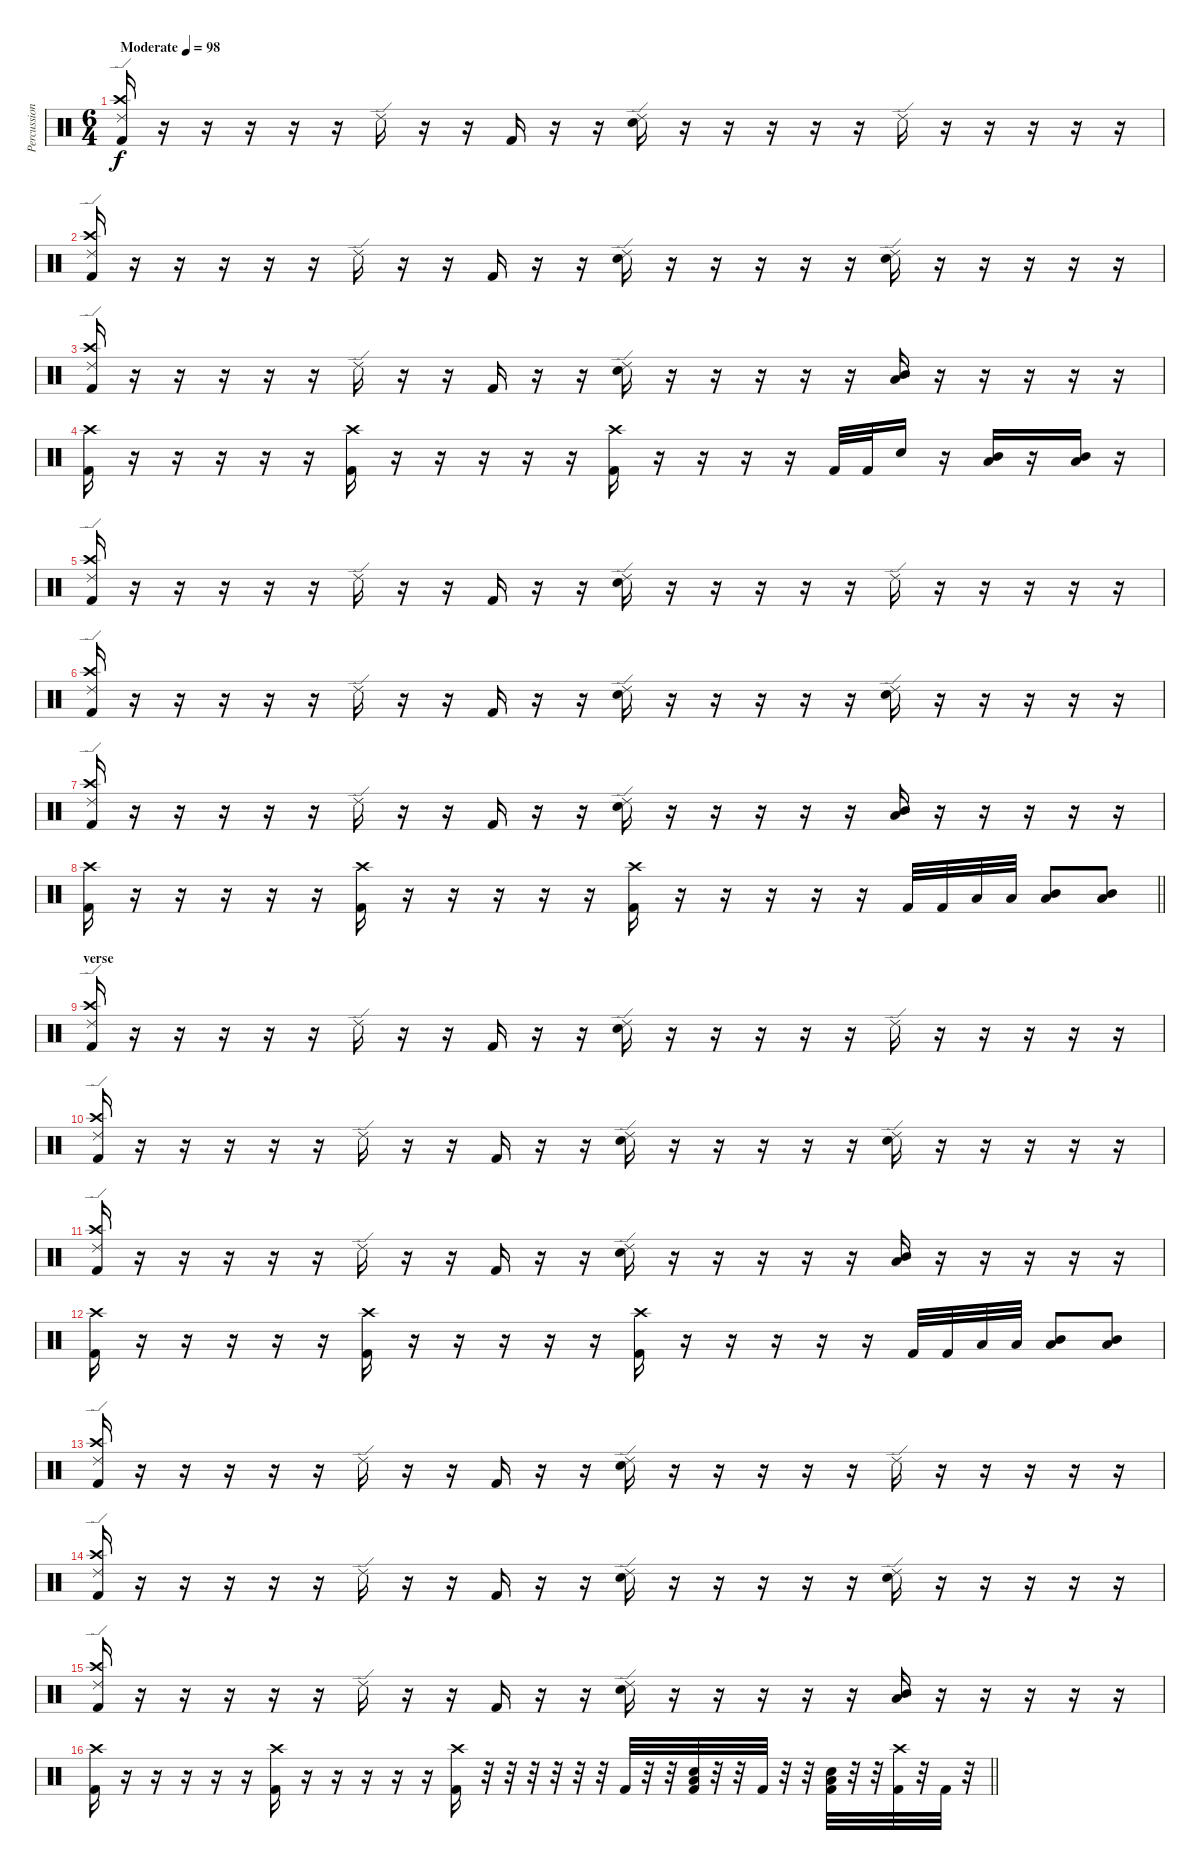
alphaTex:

\track ("Percussion" "Percussion") {instrument percussion}
\staff {score}
\articulation defaults
\ts (6 4)
\tempo (98 "Moderate")
\clef neutral
\ks c
("Ride (edge) 2" "Crash high (hit)" "Kick (hit) 2").16{dy f} r.16 r.16 r.16 r.16 r.16 "Ride (edge) 2".16 r.16 r.16 "Kick (hit) 2".16 r.16 r.16 ("Ride (edge) 2" "Electric Snare (hit)").16 r.16 r.16 r.16 r.16 r.16 "Ride (edge) 2".16 r.16 r.16 r.16 r.16 r.16 |
("Ride (edge) 2" "Crash high (hit)" "Kick (hit) 2").16 r.16 r.16 r.16 r.16 r.16 "Ride (edge) 2".16 r.16 r.16 "Kick (hit) 2".16 r.16 r.16 ("Ride (edge) 2" "Electric Snare (hit)").16 r.16 r.16 r.16 r.16 r.16 ("Ride (edge) 2" "Electric Snare (hit)").16 r.16 r.16 r.16 r.16 r.16 |
("Ride (edge) 2" "Crash high (hit)" "Kick (hit) 2").16 r.16 r.16 r.16 r.16 r.16 "Ride (edge) 2".16 r.16 r.16 "Kick (hit) 2".16 r.16 r.16 ("Ride (edge) 2" "Electric Snare (hit)").16 r.16 r.16 r.16 r.16 r.16 ("Mid Tom (hit)" "Low Tom (hit)").16 r.16 r.16 r.16 r.16 r.16 |
("Crash high (hit)" "Kick (hit) 2").16 r.16 r.16 r.16 r.16 r.16 ("Crash high (hit)" "Kick (hit) 2").16 r.16 r.16 r.16 r.16 r.16 ("Crash high (hit)" "Kick (hit) 2").16 r.16 r.16 r.16 r.16 "Kick (hit) 2".32 "Kick (hit) 2".32 "Electric Snare (hit)".16 r.16 ("Mid Tom (hit)" "Low Floor Tom (hit)").16 r.16 ("Mid Tom (hit)" "Low Floor Tom (hit)").16 r.16 |
("Ride (edge) 2" "Crash high (hit)" "Kick (hit) 2").16 r.16 r.16 r.16 r.16 r.16 "Ride (edge) 2".16 r.16 r.16 "Kick (hit) 2".16 r.16 r.16 ("Ride (edge) 2" "Electric Snare (hit)").16 r.16 r.16 r.16 r.16 r.16 "Ride (edge) 2".16 r.16 r.16 r.16 r.16 r.16 |
("Ride (edge) 2" "Crash high (hit)" "Kick (hit) 2").16 r.16 r.16 r.16 r.16 r.16 "Ride (edge) 2".16 r.16 r.16 "Kick (hit) 2".16 r.16 r.16 ("Ride (edge) 2" "Electric Snare (hit)").16 r.16 r.16 r.16 r.16 r.16 ("Ride (edge) 2" "Electric Snare (hit)").16 r.16 r.16 r.16 r.16 r.16 |
("Ride (edge) 2" "Crash high (hit)" "Kick (hit) 2").16 r.16 r.16 r.16 r.16 r.16 "Ride (edge) 2".16 r.16 r.16 "Kick (hit) 2".16 r.16 r.16 ("Ride (edge) 2" "Electric Snare (hit)").16 r.16 r.16 r.16 r.16 r.16 ("Mid Tom (hit)" "Low Tom (hit)").16 r.16 r.16 r.16 r.16 r.16 |
\barLineRight lightlight
("Crash high (hit)" "Kick (hit) 2").16 r.16 r.16 r.16 r.16 r.16 ("Crash high (hit)" "Kick (hit) 2").16 r.16 r.16 r.16 r.16 r.16 ("Crash high (hit)" "Kick (hit) 2").16 r.16 r.16 r.16 r.16 r.16 "Kick (hit) 2".32 "Kick (hit) 2".32 "Low Tom (hit)".32 "Low Tom (hit)".32 ("Mid Tom (hit)" "Low Tom (hit)").8 ("Mid Tom (hit)" "Low Tom (hit)").8 |
\section ("" "verse ")
("Ride (edge) 2" "Crash high (hit)" "Kick (hit) 2").16 r.16 r.16 r.16 r.16 r.16 "Ride (edge) 2".16 r.16 r.16 "Kick (hit) 2".16 r.16 r.16 ("Ride (edge) 2" "Electric Snare (hit)").16 r.16 r.16 r.16 r.16 r.16 "Ride (edge) 2".16 r.16 r.16 r.16 r.16 r.16 |
("Ride (edge) 2" "Crash high (hit)" "Kick (hit) 2").16 r.16 r.16 r.16 r.16 r.16 "Ride (edge) 2".16 r.16 r.16 "Kick (hit) 2".16 r.16 r.16 ("Ride (edge) 2" "Electric Snare (hit)").16 r.16 r.16 r.16 r.16 r.16 ("Ride (edge) 2" "Electric Snare (hit)").16 r.16 r.16 r.16 r.16 r.16 |
("Ride (edge) 2" "Crash high (hit)" "Kick (hit) 2").16 r.16 r.16 r.16 r.16 r.16 "Ride (edge) 2".16 r.16 r.16 "Kick (hit) 2".16 r.16 r.16 ("Ride (edge) 2" "Electric Snare (hit)").16 r.16 r.16 r.16 r.16 r.16 ("Mid Tom (hit)" "Low Tom (hit)").16 r.16 r.16 r.16 r.16 r.16 |
("Crash high (hit)" "Kick (hit) 2").16 r.16 r.16 r.16 r.16 r.16 ("Crash high (hit)" "Kick (hit) 2").16 r.16 r.16 r.16 r.16 r.16 ("Crash high (hit)" "Kick (hit) 2").16 r.16 r.16 r.16 r.16 r.16 "Kick (hit) 2".32 "Kick (hit) 2".32 "Low Tom (hit)".32 "Low Tom (hit)".32 ("Mid Tom (hit)" "Low Tom (hit)").8 ("Mid Tom (hit)" "Low Tom (hit)").8 |
("Ride (edge) 2" "Crash high (hit)" "Kick (hit) 2").16 r.16 r.16 r.16 r.16 r.16 "Ride (edge) 2".16 r.16 r.16 "Kick (hit) 2".16 r.16 r.16 ("Ride (edge) 2" "Electric Snare (hit)").16 r.16 r.16 r.16 r.16 r.16 "Ride (edge) 2".16 r.16 r.16 r.16 r.16 r.16 |
("Ride (edge) 2" "Crash high (hit)" "Kick (hit) 2").16 r.16 r.16 r.16 r.16 r.16 "Ride (edge) 2".16 r.16 r.16 "Kick (hit) 2".16 r.16 r.16 ("Ride (edge) 2" "Electric Snare (hit)").16 r.16 r.16 r.16 r.16 r.16 ("Ride (edge) 2" "Electric Snare (hit)").16 r.16 r.16 r.16 r.16 r.16 |
("Ride (edge) 2" "Crash high (hit)" "Kick (hit) 2").16 r.16 r.16 r.16 r.16 r.16 "Ride (edge) 2".16 r.16 r.16 "Kick (hit) 2".16 r.16 r.16 ("Ride (edge) 2" "Electric Snare (hit)").16 r.16 r.16 r.16 r.16 r.16 ("Mid Tom (hit)" "Low Tom (hit)").16 r.16 r.16 r.16 r.16 r.16 |
\barLineRight lightlight
("Crash high (hit)" "Kick (hit) 2").16 r.16 r.16 r.16 r.16 r.16 ("Crash high (hit)" "Kick (hit) 2").16 r.16 r.16 r.16 r.16 r.16 ("Crash high (hit)" "Kick (hit) 2").16 r.32 r.32 r.32 r.32 r.32 r.32 "Kick (hit) 2".32 r.32 r.32 ("Low Floor Tom (hit)" "Electric Snare (hit)" "Kick (hit) 2").32 r.32 r.32 "Kick (hit) 2".32 r.32 r.32 ("Low Floor Tom (hit)" "Electric Snare (hit)" "Kick (hit) 2").32 r.32 r.32 ("Crash high (hit)" "Kick (hit) 2").32 r.32 "Kick (hit) 2".32 r.32
